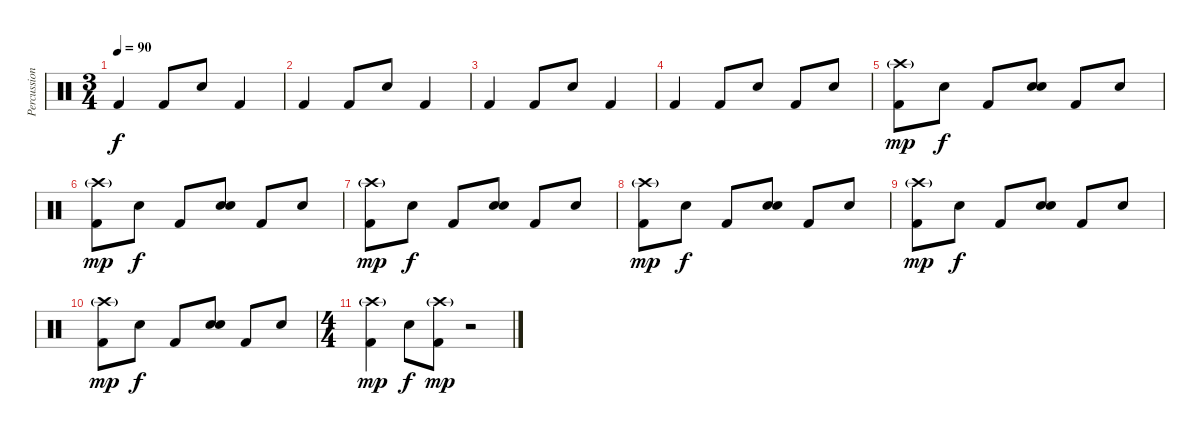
\track ("Percussion" "Percussion") {instrument percussion}
\staff {score}
\articulation defaults
\ts (3 4)
\tempo 90
\clef neutral
\ks c "Kick (hit) 2".4{dy f} "Kick (hit) 2".8 "Snare (hit) 2".8 "Kick (hit) 2".4
|
"Kick (hit) 2".4 "Kick (hit) 2".8 "Snare (hit) 2".8 "Kick (hit) 2".4 |
"Kick (hit) 2".4 "Kick (hit) 2".8 "Snare (hit) 2".8 "Kick (hit) 2".4 |
"Kick (hit) 2".4 "Kick (hit) 2".8 "Snare (hit) 2".8 "Kick (hit) 2".8 "Snare (hit) 2".8 |
("Crash high (hit)"{g} "Kick (hit) 2").8{dy mp} "Hand Clap (hit)".8{dy f} "Kick (hit) 2".8 ("Hand Clap (hit)" "Snare (hit) 2").8 "Kick (hit) 2".8 "Hand Clap (hit)".8 |
("Crash high (hit)"{g} "Kick (hit) 2").8{dy mp} "Hand Clap (hit)".8{dy f} "Kick (hit) 2".8 ("Hand Clap (hit)" "Snare (hit) 2").8 "Kick (hit) 2".8 "Hand Clap (hit)".8 |
("Crash high (hit)"{g} "Kick (hit) 2").8{dy mp} "Hand Clap (hit)".8{dy f} "Kick (hit) 2".8 ("Hand Clap (hit)" "Snare (hit) 2").8 "Kick (hit) 2".8 "Hand Clap (hit)".8 |
("Crash high (hit)"{g} "Kick (hit) 2").8{dy mp} "Hand Clap (hit)".8{dy f} "Kick (hit) 2".8 ("Hand Clap (hit)" "Snare (hit) 2").8 "Kick (hit) 2".8 "Hand Clap (hit)".8 |
("Crash high (hit)"{g} "Kick (hit) 2").8{dy mp} "Hand Clap (hit)".8{dy f} "Kick (hit) 2".8 ("Hand Clap (hit)" "Snare (hit) 2").8 "Kick (hit) 2".8 "Hand Clap (hit)".8 |
("Crash high (hit)"{g} "Kick (hit) 2").8{dy mp} "Hand Clap (hit)".8{dy f} "Kick (hit) 2".8 ("Hand Clap (hit)" "Snare (hit) 2").8 "Kick (hit) 2".8 "Hand Clap (hit)".8 |
\ts (4 4)
("Crash high (hit)"{g} "Kick (hit) 2").4{dy mp} "Snare (hit) 2".8{dy f} ("Crash high (hit)"{g} "Kick (hit) 2").8{dy mp} r.2
